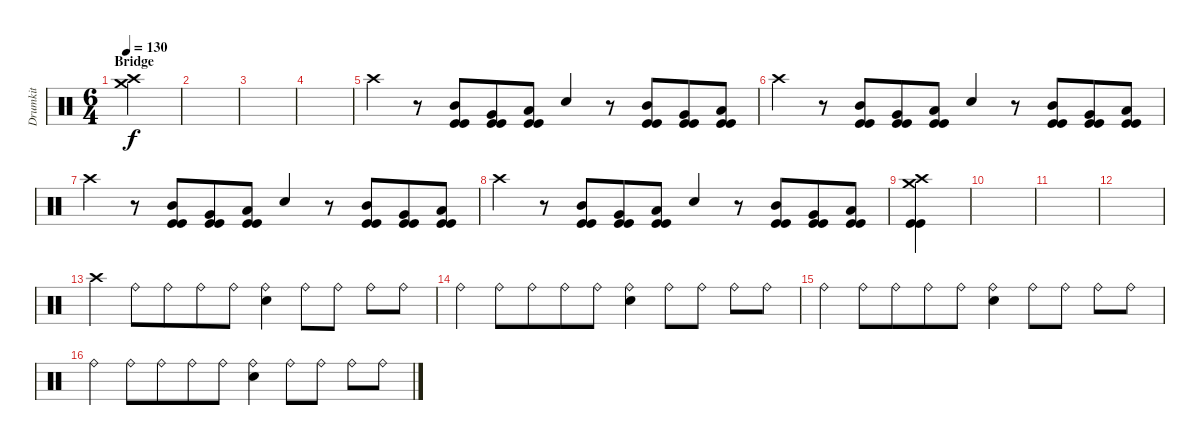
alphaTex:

\track ("Drumkit" "Drumkit") {instrument percussion bank 158}
\staff {score}
\articulation defaults
\ts (6 4)
\section ("" "Bridge")
\tempo 130
\clef neutral
\ks c
("Crash medium (hit)" "Crash high (hit)").4{dy f} |
|
|
|
"Crash high (hit)".4 r.8{beam merge} ("Mid Tom (hit)" "Kick (hit)" "Kick (hit)").8{beam merge} ("Very Low Tom (hit)" "Kick (hit)" "Kick (hit)").8{beam merge} ("Low Floor Tom (hit)" "Kick (hit)" "Kick (hit)").8 "Electric Snare (hit)".4{beam merge} r.8{beam merge} ("Mid Tom (hit)" "Kick (hit)" "Kick (hit)").8{beam merge} ("Very Low Tom (hit)" "Kick (hit)" "Kick (hit)").8{beam merge} ("Low Floor Tom (hit)" "Kick (hit)" "Kick (hit)").8 |
"Crash high (hit)".4 r.8{beam merge} ("Mid Tom (hit)" "Kick (hit)" "Kick (hit)").8{beam merge} ("Very Low Tom (hit)" "Kick (hit)" "Kick (hit)").8{beam merge} ("Low Floor Tom (hit)" "Kick (hit)" "Kick (hit)").8 "Electric Snare (hit)".4{beam merge} r.8{beam merge} ("Mid Tom (hit)" "Kick (hit)" "Kick (hit)").8{beam merge} ("Very Low Tom (hit)" "Kick (hit)" "Kick (hit)").8{beam merge} ("Low Floor Tom (hit)" "Kick (hit)" "Kick (hit)").8 |
"Crash high (hit)".4 r.8{beam merge} ("Mid Tom (hit)" "Kick (hit)" "Kick (hit)").8{beam merge} ("Very Low Tom (hit)" "Kick (hit)" "Kick (hit)").8{beam merge} ("Low Floor Tom (hit)" "Kick (hit)" "Kick (hit)").8 "Electric Snare (hit)".4{beam merge} r.8{beam merge} ("Mid Tom (hit)" "Kick (hit)" "Kick (hit)").8{beam merge} ("Very Low Tom (hit)" "Kick (hit)" "Kick (hit)").8{beam merge} ("Low Floor Tom (hit)" "Kick (hit)" "Kick (hit)").8 |
"Crash high (hit)".4 r.8{beam merge} ("Mid Tom (hit)" "Kick (hit)" "Kick (hit)").8{beam merge} ("Very Low Tom (hit)" "Kick (hit)" "Kick (hit)").8{beam merge} ("Low Floor Tom (hit)" "Kick (hit)" "Kick (hit)").8 "Electric Snare (hit)".4{beam merge} r.8{beam merge} ("Mid Tom (hit)" "Kick (hit)" "Kick (hit)").8{beam merge} ("Very Low Tom (hit)" "Kick (hit)" "Kick (hit)").8{beam merge} ("Low Floor Tom (hit)" "Kick (hit)" "Kick (hit)").8 |
("Crash medium (hit)" "Crash high (hit)" "Kick (hit)" "Kick (hit)").4 |
|
|
|
"Crash high (hit)".4{beam merge} "Ride (bell)".8{beam merge} "Ride (bell)".8{beam merge} "Ride (bell)".8{beam merge} "Ride (bell)".8{beam merge} ("Ride (bell)" "Electric Snare (hit)").4{beam merge} "Ride (bell)".8 "Ride (bell)".8 "Ride (bell)".8{beam merge} "Ride (bell)".8 |
"Ride (bell)".4{beam merge} "Ride (bell)".8{beam merge} "Ride (bell)".8{beam merge} "Ride (bell)".8{beam merge} "Ride (bell)".8{beam merge} ("Ride (bell)" "Electric Snare (hit)").4{beam merge} "Ride (bell)".8 "Ride (bell)".8 "Ride (bell)".8{beam merge} "Ride (bell)".8 |
"Ride (bell)".4{beam merge} "Ride (bell)".8{beam merge} "Ride (bell)".8{beam merge} "Ride (bell)".8{beam merge} "Ride (bell)".8{beam merge} ("Ride (bell)" "Electric Snare (hit)").4{beam merge} "Ride (bell)".8 "Ride (bell)".8 "Ride (bell)".8{beam merge} "Ride (bell)".8 |
"Ride (bell)".4{beam merge} "Ride (bell)".8{beam merge} "Ride (bell)".8{beam merge} "Ride (bell)".8{beam merge} "Ride (bell)".8{beam merge} ("Ride (bell)" "Electric Snare (hit)").4{beam merge} "Ride (bell)".8 "Ride (bell)".8 "Ride (bell)".8{beam merge} "Ride (bell)".8
